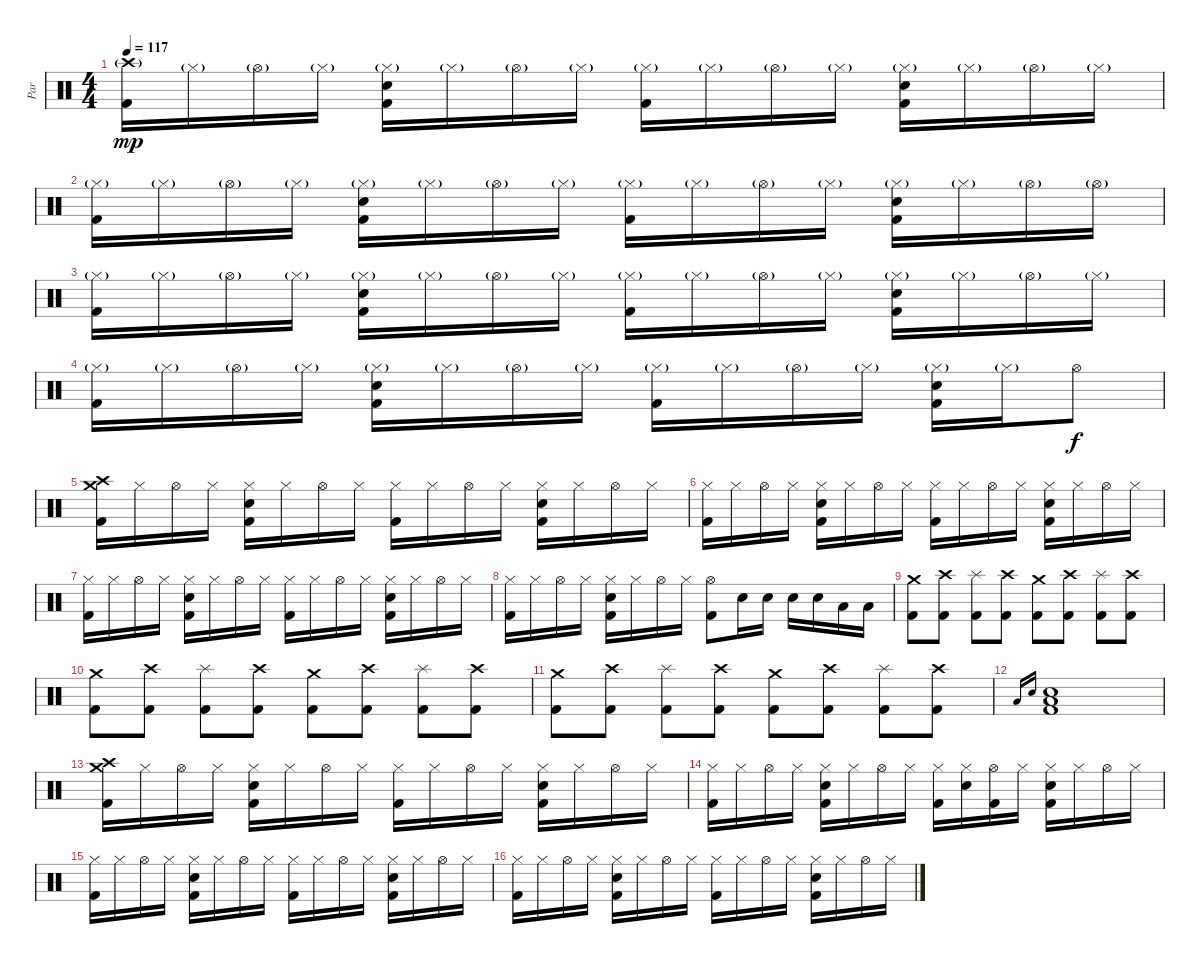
\track ("Par" "Par") {instrument percussion}
\staff {score}
\articulation defaults
\ts (4 4)
\tempo 117
\clef neutral
\ks c
("Crash high (hit)"{g} "Kick (hit) 2").16{dy mp} "Hi-Hat (closed)"{g}.16 "Hi-Hat (open)"{g}.16 "Hi-Hat (closed)"{g}.16 ("Hi-Hat (closed)"{g} "Snare (hit) 2" "Kick (hit) 2").16 "Hi-Hat (closed)"{g}.16 "Hi-Hat (open)"{g}.16 "Hi-Hat (closed)"{g}.16 ("Hi-Hat (closed)"{g} "Kick (hit) 2").16 "Hi-Hat (closed)"{g}.16 "Hi-Hat (open)"{g}.16 "Hi-Hat (closed)"{g}.16 ("Hi-Hat (closed)"{g} "Snare (hit) 2" "Kick (hit) 2").16 "Hi-Hat (closed)"{g}.16 "Hi-Hat (open)"{g}.16 "Hi-Hat (closed)"{g}.16 |
("Hi-Hat (closed)"{g} "Kick (hit) 2").16 "Hi-Hat (closed)"{g}.16 "Hi-Hat (open)"{g}.16 "Hi-Hat (closed)"{g}.16 ("Hi-Hat (closed)"{g} "Snare (hit) 2" "Kick (hit) 2").16 "Hi-Hat (closed)"{g}.16 "Hi-Hat (open)"{g}.16 "Hi-Hat (closed)"{g}.16 ("Hi-Hat (closed)"{g} "Kick (hit) 2").16 "Hi-Hat (closed)"{g}.16 "Hi-Hat (open)"{g}.16 "Hi-Hat (closed)"{g}.16 ("Hi-Hat (closed)"{g} "Snare (hit) 2" "Kick (hit) 2").16 "Hi-Hat (closed)"{g}.16 "Hi-Hat (open)"{g}.16 "Hi-Hat (open)"{g}.16 |
("Hi-Hat (closed)"{g} "Kick (hit) 2").16 "Hi-Hat (closed)"{g}.16 "Hi-Hat (open)"{g}.16 "Hi-Hat (closed)"{g}.16 ("Hi-Hat (closed)"{g} "Snare (hit) 2" "Kick (hit) 2").16 "Hi-Hat (closed)"{g}.16 "Hi-Hat (open)"{g}.16 "Hi-Hat (closed)"{g}.16 ("Hi-Hat (closed)"{g} "Kick (hit) 2").16 "Hi-Hat (closed)"{g}.16 "Hi-Hat (open)"{g}.16 "Hi-Hat (closed)"{g}.16 ("Hi-Hat (closed)"{g} "Snare (hit) 2" "Kick (hit) 2").16 "Hi-Hat (closed)"{g}.16 "Hi-Hat (open)"{g}.16 "Hi-Hat (closed)"{g}.16 |
("Hi-Hat (closed)"{g} "Kick (hit) 2").16 "Hi-Hat (closed)"{g}.16 "Hi-Hat (open)"{g}.16 "Hi-Hat (closed)"{g}.16 ("Hi-Hat (closed)"{g} "Snare (hit) 2" "Kick (hit) 2").16 "Hi-Hat (closed)"{g}.16 "Hi-Hat (open)"{g}.16 "Hi-Hat (closed)"{g}.16 ("Hi-Hat (closed)"{g} "Kick (hit) 2").16 "Hi-Hat (closed)"{g}.16 "Hi-Hat (open)"{g}.16 "Hi-Hat (closed)"{g}.16 ("Hi-Hat (closed)"{g} "Snare (hit) 2" "Kick (hit) 2").16 "Hi-Hat (closed)"{g}.16 "Hi-Hat (open)".8{dy f} |
("Crash medium (hit)" "Crash high (hit)" "Kick (hit) 2").16 "Hi-Hat (closed)".16 "Hi-Hat (open)".16 "Hi-Hat (closed)".16 ("Hi-Hat (closed)" "Snare (hit) 2" "Kick (hit) 2").16 "Hi-Hat (closed)".16 "Hi-Hat (open)".16 "Hi-Hat (closed)".16 ("Hi-Hat (closed)" "Kick (hit) 2").16 "Hi-Hat (closed)".16 "Hi-Hat (open)".16 "Hi-Hat (closed)".16 ("Hi-Hat (closed)" "Snare (hit) 2" "Kick (hit) 2").16 "Hi-Hat (closed)".16 "Hi-Hat (open)".16 "Hi-Hat (closed)".16 |
("Hi-Hat (closed)" "Kick (hit) 2").16 "Hi-Hat (closed)".16 "Hi-Hat (open)".16 "Hi-Hat (closed)".16 ("Hi-Hat (closed)" "Snare (hit) 2" "Kick (hit) 2").16 "Hi-Hat (closed)".16 "Hi-Hat (open)".16 "Hi-Hat (closed)".16 ("Hi-Hat (closed)" "Kick (hit) 2").16 "Hi-Hat (closed)".16 "Hi-Hat (open)".16 "Hi-Hat (closed)".16 ("Hi-Hat (closed)" "Snare (hit) 2" "Kick (hit) 2").16 "Hi-Hat (closed)".16 "Hi-Hat (open)".16 "Hi-Hat (closed)".16 |
("Hi-Hat (closed)" "Kick (hit) 2").16 "Hi-Hat (closed)".16 "Hi-Hat (open)".16 "Hi-Hat (closed)".16 ("Hi-Hat (closed)" "Snare (hit) 2" "Kick (hit) 2").16 "Hi-Hat (closed)".16 "Hi-Hat (open)".16 "Hi-Hat (closed)".16 ("Hi-Hat (closed)" "Kick (hit) 2").16 "Hi-Hat (closed)".16 "Hi-Hat (open)".16 "Hi-Hat (closed)".16 ("Hi-Hat (closed)" "Snare (hit) 2" "Kick (hit) 2").16 "Hi-Hat (closed)".16 "Hi-Hat (open)".16 "Hi-Hat (closed)".16 |
("Hi-Hat (closed)" "Kick (hit) 2").16 "Hi-Hat (closed)".16 "Hi-Hat (open)".16 "Hi-Hat (closed)".16 ("Hi-Hat (closed)" "Snare (hit) 2" "Kick (hit) 2").16 "Hi-Hat (closed)".16 "Hi-Hat (open)".16 "Hi-Hat (closed)".16 ("Hi-Hat (open)" "Kick (hit) 2").8 "Snare (hit) 2".16 "Snare (hit) 2".16 "Snare (hit) 2".16 "Snare (hit) 2".16 "Low Floor Tom (hit)".16 "Low Floor Tom (hit)".16 |
("Crash medium (hit)" "Kick (hit) 2").8 ("Crash high (hit)" "Kick (hit) 2").8 ("Splash (hit)" "Kick (hit) 2").8 ("Crash high (hit)" "Kick (hit) 2").8 ("Crash medium (hit)" "Kick (hit) 2").8 ("Crash high (hit)" "Kick (hit) 2").8 ("Splash (hit)" "Kick (hit) 2").8 ("Crash high (hit)" "Kick (hit) 2").8 |
("Crash medium (hit)" "Kick (hit) 2").8 ("Crash high (hit)" "Kick (hit) 2").8 ("Splash (hit)" "Kick (hit) 2").8 ("Crash high (hit)" "Kick (hit) 2").8 ("Crash medium (hit)" "Kick (hit) 2").8 ("Crash high (hit)" "Kick (hit) 2").8 ("Splash (hit)" "Kick (hit) 2").8 ("Crash high (hit)" "Kick (hit) 2").8 |
("Crash medium (hit)" "Kick (hit) 2").8 ("Crash high (hit)" "Kick (hit) 2").8 ("Splash (hit)" "Kick (hit) 2").8 ("Crash high (hit)" "Kick (hit) 2").8 ("Crash medium (hit)" "Kick (hit) 2").8 ("Crash high (hit)" "Kick (hit) 2").8 ("Splash (hit)" "Kick (hit) 2").8 ("Crash high (hit)" "Kick (hit) 2").8 |
"Low Floor Tom (hit)".16{gr onbeat} "Snare (hit) 2".16{gr onbeat} ("Low Floor Tom (hit)" "Snare (hit) 2" "Kick (hit) 2").1 |
("Crash medium (hit)" "Crash high (hit)" "Kick (hit) 2").16 "Hi-Hat (closed)".16 "Hi-Hat (open)".16 "Hi-Hat (closed)".16 ("Hi-Hat (closed)" "Snare (hit) 2" "Kick (hit) 2").16 "Hi-Hat (closed)".16 "Hi-Hat (open)".16 "Hi-Hat (closed)".16 ("Hi-Hat (closed)" "Kick (hit) 2").16 "Hi-Hat (closed)".16 "Hi-Hat (open)".16 "Hi-Hat (closed)".16 ("Hi-Hat (closed)" "Snare (hit) 2" "Kick (hit) 2").16 "Hi-Hat (closed)".16 "Hi-Hat (open)".16 "Hi-Hat (closed)".16 |
("Hi-Hat (closed)" "Kick (hit) 2").16 "Hi-Hat (closed)".16 "Hi-Hat (open)".16 "Hi-Hat (closed)".16 ("Hi-Hat (closed)" "Snare (hit) 2" "Kick (hit) 2").16 "Hi-Hat (closed)".16 "Hi-Hat (open)".16 "Hi-Hat (closed)".16 ("Hi-Hat (closed)" "Kick (hit) 2").16 ("Hi-Hat (closed)" "Snare (hit) 2").16 ("Hi-Hat (open)" "Kick (hit) 2").16 "Hi-Hat (closed)".16 ("Hi-Hat (closed)" "Snare (hit) 2" "Kick (hit) 2").16 "Hi-Hat (closed)".16 "Hi-Hat (open)".16 "Hi-Hat (closed)".16 |
("Hi-Hat (closed)" "Kick (hit) 2").16 "Hi-Hat (closed)".16 "Hi-Hat (open)".16 "Hi-Hat (closed)".16 ("Hi-Hat (closed)" "Snare (hit) 2" "Kick (hit) 2").16 "Hi-Hat (closed)".16 "Hi-Hat (open)".16 "Hi-Hat (closed)".16 ("Hi-Hat (closed)" "Kick (hit) 2").16 "Hi-Hat (closed)".16 "Hi-Hat (open)".16 "Hi-Hat (closed)".16 ("Hi-Hat (closed)" "Snare (hit) 2" "Kick (hit) 2").16 "Hi-Hat (closed)".16 "Hi-Hat (open)".16 "Hi-Hat (closed)".16 |
("Hi-Hat (closed)" "Kick (hit) 2").16 "Hi-Hat (closed)".16 "Hi-Hat (open)".16 "Hi-Hat (closed)".16 ("Hi-Hat (closed)" "Snare (hit) 2" "Kick (hit) 2").16 "Hi-Hat (closed)".16 "Hi-Hat (open)".16 "Hi-Hat (closed)".16 ("Hi-Hat (closed)" "Kick (hit) 2").16 "Hi-Hat (closed)".16 "Hi-Hat (open)".16 "Hi-Hat (closed)".16 ("Hi-Hat (closed)" "Snare (hit) 2" "Kick (hit) 2").16 "Hi-Hat (closed)".16 "Hi-Hat (open)".16 "Hi-Hat (closed)".16
